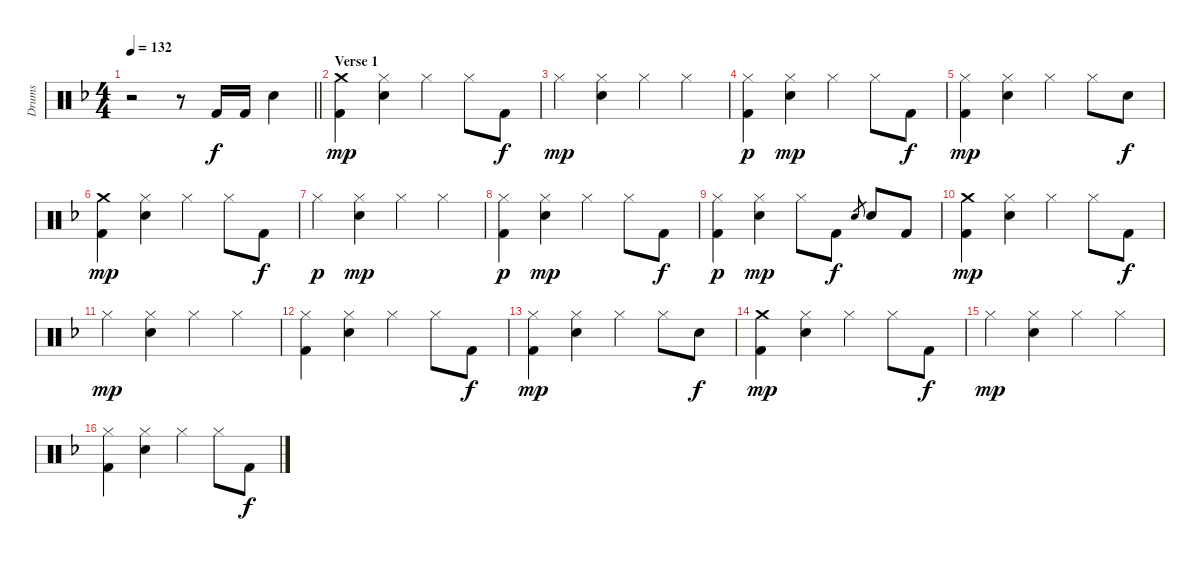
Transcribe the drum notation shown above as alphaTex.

\track ("Drums" "Drums") {instrument percussion}
\staff {score}
\articulation defaults
\ts (4 4)
\tempo 132
\clef neutral
\barLineRight lightlight
\ks f
r.2{dy p} r.8 "Kick (hit) 2".16{dy f} "Kick (hit) 2".16 "Electric Snare (hit)".4 |
\section ("" "Verse 1")
("Crash medium (hit)" "Kick (hit) 2").4{dy mp} ("Hi-Hat (closed)" "Electric Snare (hit)").4 "Hi-Hat (closed)".4 "Hi-Hat (closed)".8 "Kick (hit) 2".8{dy f} |
"Hi-Hat (closed)".4{dy mp} ("Hi-Hat (closed)" "Electric Snare (hit)").4 "Hi-Hat (closed)".4 "Hi-Hat (closed)".4 |
("Hi-Hat (closed)" "Kick (hit) 2").4{dy p} ("Hi-Hat (closed)" "Electric Snare (hit)").4{dy mp} "Hi-Hat (closed)".4 "Hi-Hat (closed)".8 "Kick (hit) 2".8{dy f} |
("Hi-Hat (closed)" "Kick (hit) 2").4{dy mp} ("Hi-Hat (closed)" "Electric Snare (hit)").4 "Hi-Hat (closed)".4 "Hi-Hat (closed)".8 "Electric Snare (hit)".8{dy f} |
("Crash medium (hit)" "Kick (hit) 2").4{dy mp} ("Hi-Hat (closed)" "Electric Snare (hit)").4 "Hi-Hat (closed)".4 "Hi-Hat (closed)".8 "Kick (hit) 2".8{dy f} |
"Hi-Hat (closed)".4{dy p} ("Hi-Hat (closed)" "Electric Snare (hit)").4{dy mp} "Hi-Hat (closed)".4 "Hi-Hat (closed)".4 |
("Hi-Hat (closed)" "Kick (hit) 2").4{dy p} ("Hi-Hat (closed)" "Electric Snare (hit)").4{dy mp} "Hi-Hat (closed)".4 "Hi-Hat (closed)".8 "Kick (hit) 2".8{dy f} |
("Hi-Hat (closed)" "Kick (hit) 2").4{dy p} ("Hi-Hat (closed)" "Electric Snare (hit)").4{dy mp} "Hi-Hat (closed)".8 "Kick (hit) 2".8{dy f} "Electric Snare (hit)".8{gr} "Electric Snare (hit)".8 "Kick (hit) 2".8 |
("Crash medium (hit)" "Kick (hit) 2").4{dy mp} ("Hi-Hat (closed)" "Electric Snare (hit)").4 "Hi-Hat (closed)".4 "Hi-Hat (closed)".8 "Kick (hit) 2".8{dy f} |
"Hi-Hat (closed)".4{dy mp} ("Hi-Hat (closed)" "Electric Snare (hit)").4 "Hi-Hat (closed)".4 "Hi-Hat (closed)".4 |
("Hi-Hat (closed)" "Kick (hit) 2").4 ("Hi-Hat (closed)" "Electric Snare (hit)").4 "Hi-Hat (closed)".4 "Hi-Hat (closed)".8 "Kick (hit) 2".8{dy f} |
("Hi-Hat (closed)" "Kick (hit) 2").4{dy mp} ("Hi-Hat (closed)" "Electric Snare (hit)").4 "Hi-Hat (closed)".4 "Hi-Hat (closed)".8 "Electric Snare (hit)".8{dy f} |
("Crash medium (hit)" "Kick (hit) 2").4{dy mp} ("Hi-Hat (closed)" "Electric Snare (hit)").4 "Hi-Hat (closed)".4 "Hi-Hat (closed)".8 "Kick (hit) 2".8{dy f} |
"Hi-Hat (closed)".4{dy mp} ("Hi-Hat (closed)" "Electric Snare (hit)").4 "Hi-Hat (closed)".4 "Hi-Hat (closed)".4 |
("Hi-Hat (closed)" "Kick (hit) 2").4 ("Hi-Hat (closed)" "Electric Snare (hit)").4 "Hi-Hat (closed)".4 "Hi-Hat (closed)".8 "Kick (hit) 2".8{dy f}
